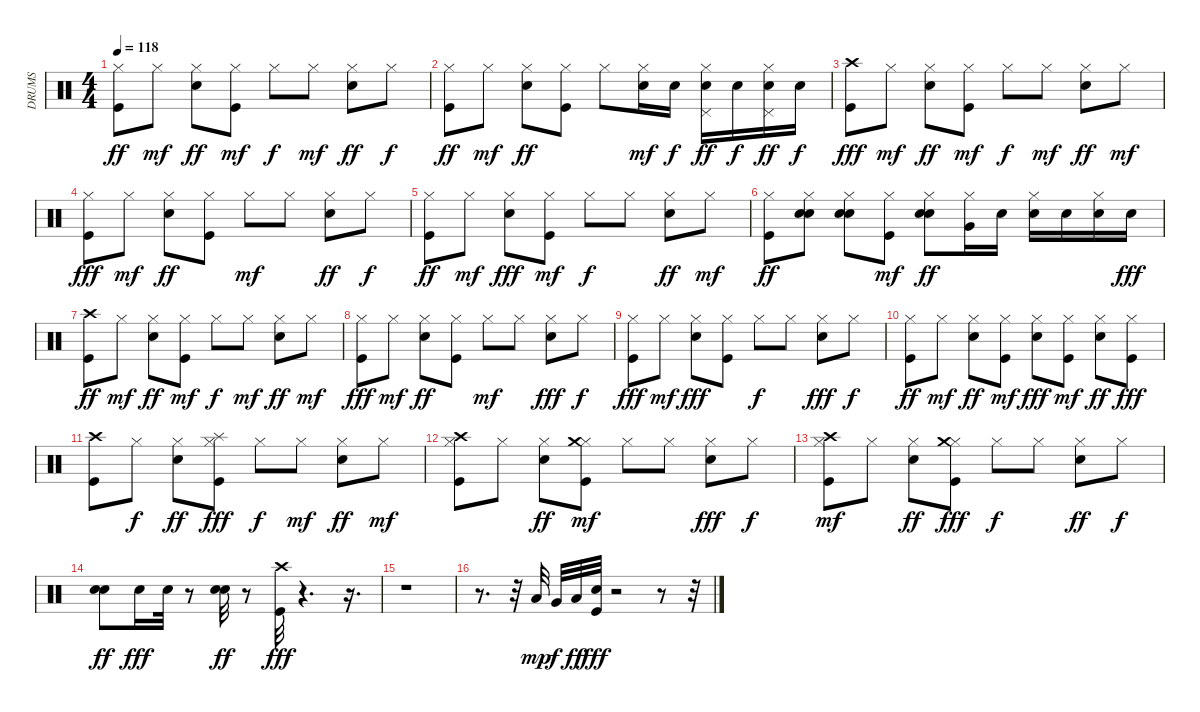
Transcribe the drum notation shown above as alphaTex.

\track ("DRUMS" "DRUMS") {instrument percussion}
\staff {score}
\articulation defaults
\ts (4 4)
\tempo 118
\clef neutral
\ks c
("Kick (hit)" "Hi-Hat (closed)").8{dy ff} "Hi-Hat (closed)".8{dy mf} ("Electric Snare (hit)" "Hi-Hat (closed)").8{dy ff} ("Kick (hit)" "Hi-Hat (closed)").8{dy mf} "Hi-Hat (closed)".8{dy f} "Hi-Hat (closed)".8{dy mf} ("Electric Snare (hit)" "Hi-Hat (closed)").8{dy ff} "Hi-Hat (closed)".8{dy f} |
("Kick (hit)" "Hi-Hat (closed)").8{dy ff} "Hi-Hat (closed)".8{dy mf} ("Electric Snare (hit)" "Hi-Hat (closed)").8{dy ff} ("Kick (hit)" "Hi-Hat (closed)").8 "Hi-Hat (closed)".8 ("Electric Snare (hit)" "Hi-Hat (closed)").16{dy mf} "Electric Snare (hit)".16{dy f} ("Electric Snare (hit)" "Hi-Hat (closed)" "Pedal Hi-Hat (hit)").16{dy ff} "Electric Snare (hit)".16{dy f} ("Electric Snare (hit)" "Hi-Hat (closed)" "Pedal Hi-Hat (hit)").16{dy ff} "Electric Snare (hit)".16{dy f} |
("Kick (hit)" "Crash high (hit)").8{dy fff} "Hi-Hat (closed)".8{dy mf} ("Electric Snare (hit)" "Hi-Hat (closed)").8{dy ff} ("Kick (hit)" "Hi-Hat (closed)").8{dy mf} "Hi-Hat (closed)".8{dy f} "Hi-Hat (closed)".8{dy mf} ("Electric Snare (hit)" "Hi-Hat (closed)").8{dy ff} "Hi-Hat (closed)".8{dy mf} |
("Kick (hit)" "Hi-Hat (closed)").8{dy fff} "Hi-Hat (closed)".8{dy mf} ("Electric Snare (hit)" "Hi-Hat (closed)").8{dy ff} ("Kick (hit)" "Hi-Hat (closed)").8 "Hi-Hat (closed)".8{dy mf} "Hi-Hat (closed)".8 ("Electric Snare (hit)" "Hi-Hat (closed)").8{dy ff} "Hi-Hat (closed)".8{dy f} |
("Kick (hit)" "Hi-Hat (closed)").8{dy ff} "Hi-Hat (closed)".8{dy mf} ("Electric Snare (hit)" "Hi-Hat (closed)").8{dy fff} ("Kick (hit)" "Hi-Hat (closed)").8{dy mf} "Hi-Hat (closed)".8{dy f} "Hi-Hat (closed)".8 ("Electric Snare (hit)" "Hi-Hat (closed)").8{dy ff} "Hi-Hat (closed)".8{dy mf} |
("Kick (hit)" "Hi-Hat (closed)").8{dy ff} ("Electric Snare (hit)" "Hi-Hat (closed)" "Electric Snare (hit)").8 ("Electric Snare (hit)" "Hi-Hat (closed)" "Electric Snare (hit)").8 ("Kick (hit)" "Hi-Hat (closed)").8{dy mf} ("Electric Snare (hit)" "Hi-Hat (closed)" "Electric Snare (hit)").8{dy ff} ("Hi-Hat (closed)" "Very Low Tom (hit)").16 "Electric Snare (hit)".16 ("Electric Snare (hit)" "Hi-Hat (closed)").16 "Electric Snare (hit)".16 ("Electric Snare (hit)" "Hi-Hat (closed)").16 "Electric Snare (hit)".16{dy fff} |
("Kick (hit)" "Crash high (hit)").8{dy ff} "Hi-Hat (closed)".8{dy mf} ("Electric Snare (hit)" "Hi-Hat (closed)").8{dy ff} ("Kick (hit)" "Hi-Hat (closed)").8{dy mf} "Hi-Hat (closed)".8{dy f} "Hi-Hat (closed)".8{dy mf} ("Electric Snare (hit)" "Hi-Hat (closed)").8{dy ff} "Hi-Hat (closed)".8{dy mf} |
("Kick (hit)" "Hi-Hat (closed)").8{dy fff} "Hi-Hat (closed)".8{dy mf} ("Electric Snare (hit)" "Hi-Hat (closed)").8{dy ff} ("Kick (hit)" "Hi-Hat (closed)").8 "Hi-Hat (closed)".8{dy mf} "Hi-Hat (closed)".8 ("Electric Snare (hit)" "Hi-Hat (closed)").8{dy fff} "Hi-Hat (closed)".8{dy f} |
("Kick (hit)" "Hi-Hat (closed)").8{dy fff} "Hi-Hat (closed)".8{dy mf} ("Electric Snare (hit)" "Hi-Hat (closed)").8{dy fff} ("Kick (hit)" "Hi-Hat (closed)").8 "Hi-Hat (closed)".8{dy f} "Hi-Hat (closed)".8 ("Electric Snare (hit)" "Hi-Hat (closed)").8{dy fff} "Hi-Hat (closed)".8{dy f} |
("Kick (hit)" "Hi-Hat (closed)").8{dy ff} "Hi-Hat (closed)".8{dy mf} ("Electric Snare (hit)" "Hi-Hat (closed)").8{dy ff} ("Kick (hit)" "Hi-Hat (closed)").8{dy mf} ("Electric Snare (hit)" "Hi-Hat (closed)").8{dy fff} ("Kick (hit)" "Hi-Hat (closed)").8{dy mf} ("Electric Snare (hit)" "Hi-Hat (closed)").8{dy ff} ("Kick (hit)" "Hi-Hat (closed)").8{dy fff} |
("Kick (hit)" "Crash high (hit)").8 "Hi-Hat (closed)".8{dy f} ("Electric Snare (hit)" "Hi-Hat (closed)").8{dy ff} ("Kick (hit)" "Hi-Hat (closed)" "Splash (hit)").8{dy fff} "Hi-Hat (closed)".8{dy f} "Hi-Hat (closed)".8{dy mf} ("Electric Snare (hit)" "Hi-Hat (closed)").8{dy ff} "Hi-Hat (closed)".8{dy mf} |
("Kick (hit)" "Hi-Hat (closed)" "Crash high (hit)").8 "Hi-Hat (closed)".8 ("Electric Snare (hit)" "Hi-Hat (closed)").8{dy ff} ("Kick (hit)" "Hi-Hat (closed)" "Crash medium (hit)").8{dy mf} "Hi-Hat (closed)".8 "Hi-Hat (closed)".8 ("Electric Snare (hit)" "Hi-Hat (closed)").8{dy fff} "Hi-Hat (closed)".8{dy f} |
("Kick (hit)" "Hi-Hat (closed)" "Crash high (hit)").8{dy mf} "Hi-Hat (closed)".8 ("Electric Snare (hit)" "Hi-Hat (closed)").8{dy ff} ("Kick (hit)" "Hi-Hat (closed)" "Crash medium (hit)").8{dy fff} "Hi-Hat (closed)".8{dy f} "Hi-Hat (closed)".8 ("Electric Snare (hit)" "Hi-Hat (closed)").8{dy ff} "Hi-Hat (closed)".8{dy f} |
("Electric Snare (hit)" "Electric Snare (hit)").8{dy ff} "Electric Snare (hit)".16{dy fff} "Electric Snare (hit)".32 r.8 ("Electric Snare (hit)" "Electric Snare (hit)").32{dy ff} r.8 ("Kick (hit)" "Crash high (hit)").32{dy fff} r.4{d} r.16{d} |
r.1 |
r.8{d} r.32 "Low Tom (hit)".32{dy mp} "Very Low Tom (hit)".32{dy f} "Low Floor Tom (hit)".32{dy ff} ("Electric Snare (hit)" "Kick (hit)").32{dy fff} r.2 r.8 r.32
